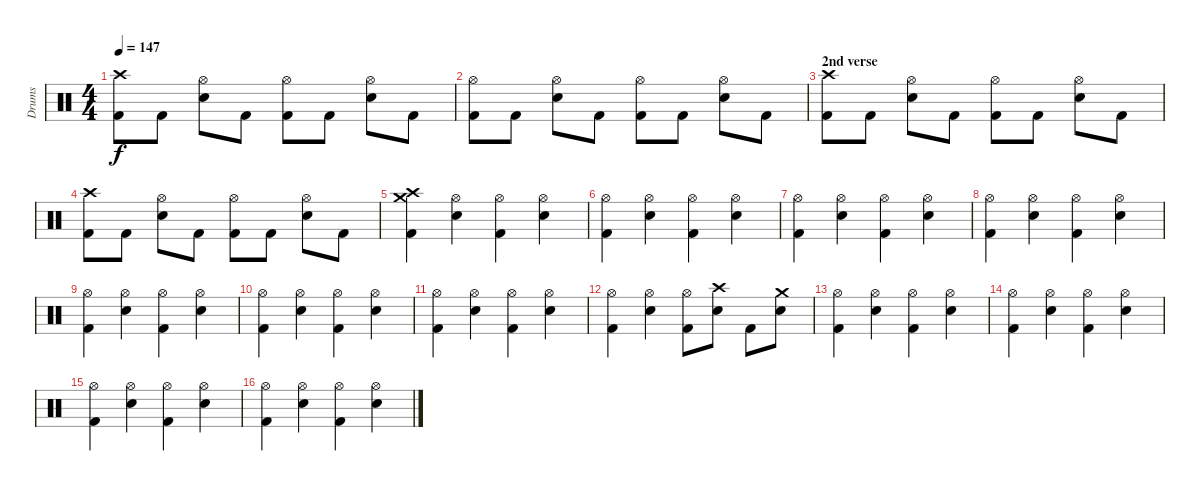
\track ("Drums" "Drums") {instrument percussion}
\staff {score}
\articulation defaults
\ts (4 4)
\tempo 147
\clef neutral
\ks c
("Kick (hit) 2" "Crash high (hit)").8{dy f} "Kick (hit) 2".8 ("Electric Snare (hit)" "Hi-Hat (open)").8 "Kick (hit) 2".8 ("Kick (hit) 2" "Hi-Hat (open)").8 "Kick (hit) 2".8 ("Electric Snare (hit)" "Hi-Hat (open)").8 "Kick (hit) 2".8 |
("Kick (hit) 2" "Hi-Hat (open)").8 "Kick (hit) 2".8 ("Electric Snare (hit)" "Hi-Hat (open)").8 "Kick (hit) 2".8 ("Kick (hit) 2" "Hi-Hat (open)").8 "Kick (hit) 2".8 ("Electric Snare (hit)" "Hi-Hat (open)").8 "Kick (hit) 2".8 |
\section ("" "2nd verse")
("Kick (hit) 2" "Crash high (hit)").8 "Kick (hit) 2".8 ("Electric Snare (hit)" "Hi-Hat (open)").8 "Kick (hit) 2".8 ("Kick (hit) 2" "Hi-Hat (open)").8 "Kick (hit) 2".8 ("Electric Snare (hit)" "Hi-Hat (open)").8 "Kick (hit) 2".8 |
("Kick (hit) 2" "Crash high (hit)").8 "Kick (hit) 2".8 ("Electric Snare (hit)" "Hi-Hat (open)").8 "Kick (hit) 2".8 ("Kick (hit) 2" "Hi-Hat (open)").8 "Kick (hit) 2".8 ("Electric Snare (hit)" "Hi-Hat (open)").8 "Kick (hit) 2".8 |
("Kick (hit) 2" "Crash medium (hit)" "Crash high (hit)").4 ("Electric Snare (hit)" "Hi-Hat (open)").4 ("Kick (hit) 2" "Hi-Hat (open)").4 ("Electric Snare (hit)" "Hi-Hat (open)").4 |
("Kick (hit) 2" "Hi-Hat (open)").4 ("Electric Snare (hit)" "Hi-Hat (open)").4 ("Kick (hit) 2" "Hi-Hat (open)").4 ("Electric Snare (hit)" "Hi-Hat (open)").4 |
("Kick (hit) 2" "Hi-Hat (open)").4 ("Electric Snare (hit)" "Hi-Hat (open)").4 ("Kick (hit) 2" "Hi-Hat (open)").4 ("Electric Snare (hit)" "Hi-Hat (open)").4 |
("Kick (hit) 2" "Hi-Hat (open)").4 ("Electric Snare (hit)" "Hi-Hat (open)").4 ("Kick (hit) 2" "Hi-Hat (open)").4 ("Electric Snare (hit)" "Hi-Hat (open)").4 |
("Kick (hit) 2" "Hi-Hat (open)").4 ("Electric Snare (hit)" "Hi-Hat (open)").4 ("Kick (hit) 2" "Hi-Hat (open)").4 ("Electric Snare (hit)" "Hi-Hat (open)").4 |
("Kick (hit) 2" "Hi-Hat (open)").4 ("Electric Snare (hit)" "Hi-Hat (open)").4 ("Kick (hit) 2" "Hi-Hat (open)").4 ("Electric Snare (hit)" "Hi-Hat (open)").4 |
("Kick (hit) 2" "Hi-Hat (open)").4 ("Electric Snare (hit)" "Hi-Hat (open)").4 ("Kick (hit) 2" "Hi-Hat (open)").4 ("Electric Snare (hit)" "Hi-Hat (open)").4 |
("Kick (hit) 2" "Hi-Hat (open)").4 ("Electric Snare (hit)" "Hi-Hat (open)").4 ("Kick (hit) 2" "Hi-Hat (open)").8 ("Electric Snare (hit)" "Crash high (hit)").8 "Kick (hit) 2".8 ("Electric Snare (hit)" "Crash medium (hit)").8 |
("Kick (hit) 2" "Hi-Hat (open)").4 ("Electric Snare (hit)" "Hi-Hat (open)").4 ("Kick (hit) 2" "Hi-Hat (open)").4 ("Electric Snare (hit)" "Hi-Hat (open)").4 |
("Kick (hit) 2" "Hi-Hat (open)").4 ("Electric Snare (hit)" "Hi-Hat (open)").4 ("Kick (hit) 2" "Hi-Hat (open)").4 ("Electric Snare (hit)" "Hi-Hat (open)").4 |
("Kick (hit) 2" "Hi-Hat (open)").4 ("Electric Snare (hit)" "Hi-Hat (open)").4 ("Kick (hit) 2" "Hi-Hat (open)").4 ("Electric Snare (hit)" "Hi-Hat (open)").4 |
("Kick (hit) 2" "Hi-Hat (open)").4 ("Electric Snare (hit)" "Hi-Hat (open)").4 ("Kick (hit) 2" "Hi-Hat (open)").4 ("Electric Snare (hit)" "Hi-Hat (open)").4
